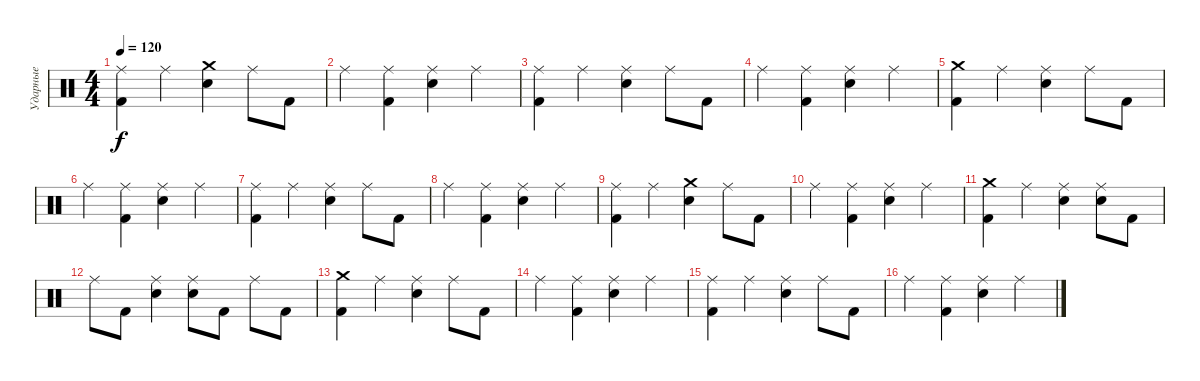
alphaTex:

\track ("Ударные" "Ударные") {instrument percussion}
\staff {score}
\articulation defaults
\ts (4 4)
\tempo 120
\clef neutral
\ks c
("Ride (middle)" "Kick (hit) 2").4{dy f} "Ride (middle)".4 ("Crash medium (hit)" "Electric Snare (hit)").4 "Ride (middle)".8 "Kick (hit) 2".8 |
"Ride (middle)".4 ("Ride (middle)" "Kick (hit) 2").4 ("Ride (middle)" "Electric Snare (hit)").4 "Ride (middle)".4 |
("Ride (middle)" "Kick (hit) 2").4 "Ride (middle)".4 ("Ride (middle)" "Electric Snare (hit)").4 "Ride (middle)".8 "Kick (hit) 2".8 |
"Ride (middle)".4 ("Ride (middle)" "Kick (hit) 2").4 ("Ride (middle)" "Electric Snare (hit)").4 "Ride (middle)".4 |
("Crash medium (hit)" "Kick (hit) 2").4 "Ride (middle)".4 ("Ride (middle)" "Electric Snare (hit)").4 "Ride (middle)".8 "Kick (hit) 2".8 |
"Ride (middle)".4 ("Ride (middle)" "Kick (hit) 2").4 ("Ride (middle)" "Electric Snare (hit)").4 "Ride (middle)".4 |
("Ride (middle)" "Kick (hit) 2").4 "Ride (middle)".4 ("Ride (middle)" "Electric Snare (hit)").4 "Ride (middle)".8 "Kick (hit) 2".8 |
"Ride (middle)".4 ("Ride (middle)" "Kick (hit) 2").4 ("Ride (middle)" "Electric Snare (hit)").4 "Ride (middle)".4 |
("Ride (middle)" "Kick (hit) 2").4 "Ride (middle)".4 ("Crash medium (hit)" "Electric Snare (hit)").4 "Ride (middle)".8 "Kick (hit) 2".8 |
"Ride (middle)".4 ("Ride (middle)" "Kick (hit) 2").4 ("Ride (middle)" "Electric Snare (hit)").4 "Ride (middle)".4 |
("Crash medium (hit)" "Kick (hit) 2").4 "Ride (middle)".4 ("Ride (middle)" "Electric Snare (hit)").4 ("Ride (middle)" "Electric Snare (hit)").8 "Kick (hit) 2".8 |
"Ride (middle)".8 "Kick (hit) 2".8 ("Ride (middle)" "Electric Snare (hit)").4 ("Ride (middle)" "Electric Snare (hit)").8 "Kick (hit) 2".8 "Ride (middle)".8 "Kick (hit) 2".8 |
("Crash medium (hit)" "Kick (hit) 2").4 "Ride (middle)".4 ("Ride (middle)" "Electric Snare (hit)").4 "Ride (middle)".8 "Kick (hit) 2".8 |
"Ride (middle)".4 ("Ride (middle)" "Kick (hit) 2").4 ("Ride (middle)" "Electric Snare (hit)").4 "Ride (middle)".4 |
("Ride (middle)" "Kick (hit) 2").4 "Ride (middle)".4 ("Ride (middle)" "Electric Snare (hit)").4 "Ride (middle)".8 "Kick (hit) 2".8 |
"Ride (middle)".4 ("Ride (middle)" "Kick (hit) 2").4 ("Ride (middle)" "Electric Snare (hit)").4 "Ride (middle)".4
